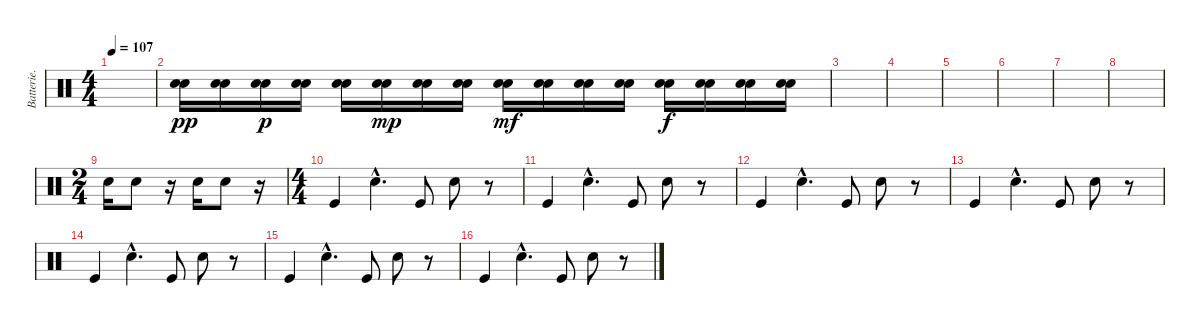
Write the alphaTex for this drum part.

\track ("Batterie." "Batterie.") {instrument percussion}
\staff {score}
\articulation defaults
\ts (4 4)
\tempo 107
\clef neutral
\ks c
|
("Snare (hit) 2" "Electric Snare (hit)").16{dy pp} ("Snare (hit) 2" "Electric Snare (hit)").16 ("Snare (hit) 2" "Electric Snare (hit)").16{dy p} ("Snare (hit) 2" "Electric Snare (hit)").16 ("Snare (hit) 2" "Electric Snare (hit)").16 ("Snare (hit) 2" "Electric Snare (hit)").16{dy mp} ("Snare (hit) 2" "Electric Snare (hit)").16 ("Snare (hit) 2" "Electric Snare (hit)").16 ("Snare (hit) 2" "Electric Snare (hit)").16{dy mf} ("Snare (hit) 2" "Electric Snare (hit)").16 ("Snare (hit) 2" "Electric Snare (hit)").16 ("Snare (hit) 2" "Electric Snare (hit)").16 ("Snare (hit) 2" "Electric Snare (hit)").16{dy f} ("Snare (hit) 2" "Electric Snare (hit)").16 ("Snare (hit) 2" "Electric Snare (hit)").16 ("Snare (hit) 2" "Electric Snare (hit)").16 |
|
|
|
|
|
|
\ts (2 4)
"Electric Snare (hit)".16 "Electric Snare (hit)".8 r.16 "Electric Snare (hit)".16 "Electric Snare (hit)".8 r.16 |
\ts (4 4)
"Kick (hit)".4 "Electric Snare (hit)"{hac}.4{d} "Kick (hit)".8 "Electric Snare (hit)".8 r.8 |
"Kick (hit)".4 "Electric Snare (hit)"{hac}.4{d} "Kick (hit)".8 "Electric Snare (hit)".8 r.8 |
"Kick (hit)".4 "Electric Snare (hit)"{hac}.4{d} "Kick (hit)".8 "Electric Snare (hit)".8 r.8 |
"Kick (hit)".4 "Electric Snare (hit)"{hac}.4{d} "Kick (hit)".8 "Electric Snare (hit)".8 r.8 |
"Kick (hit)".4 "Electric Snare (hit)"{hac}.4{d} "Kick (hit)".8 "Electric Snare (hit)".8 r.8 |
"Kick (hit)".4 "Electric Snare (hit)"{hac}.4{d} "Kick (hit)".8 "Electric Snare (hit)".8 r.8 |
"Kick (hit)".4 "Electric Snare (hit)"{hac}.4{d} "Kick (hit)".8 "Electric Snare (hit)".8 r.8
